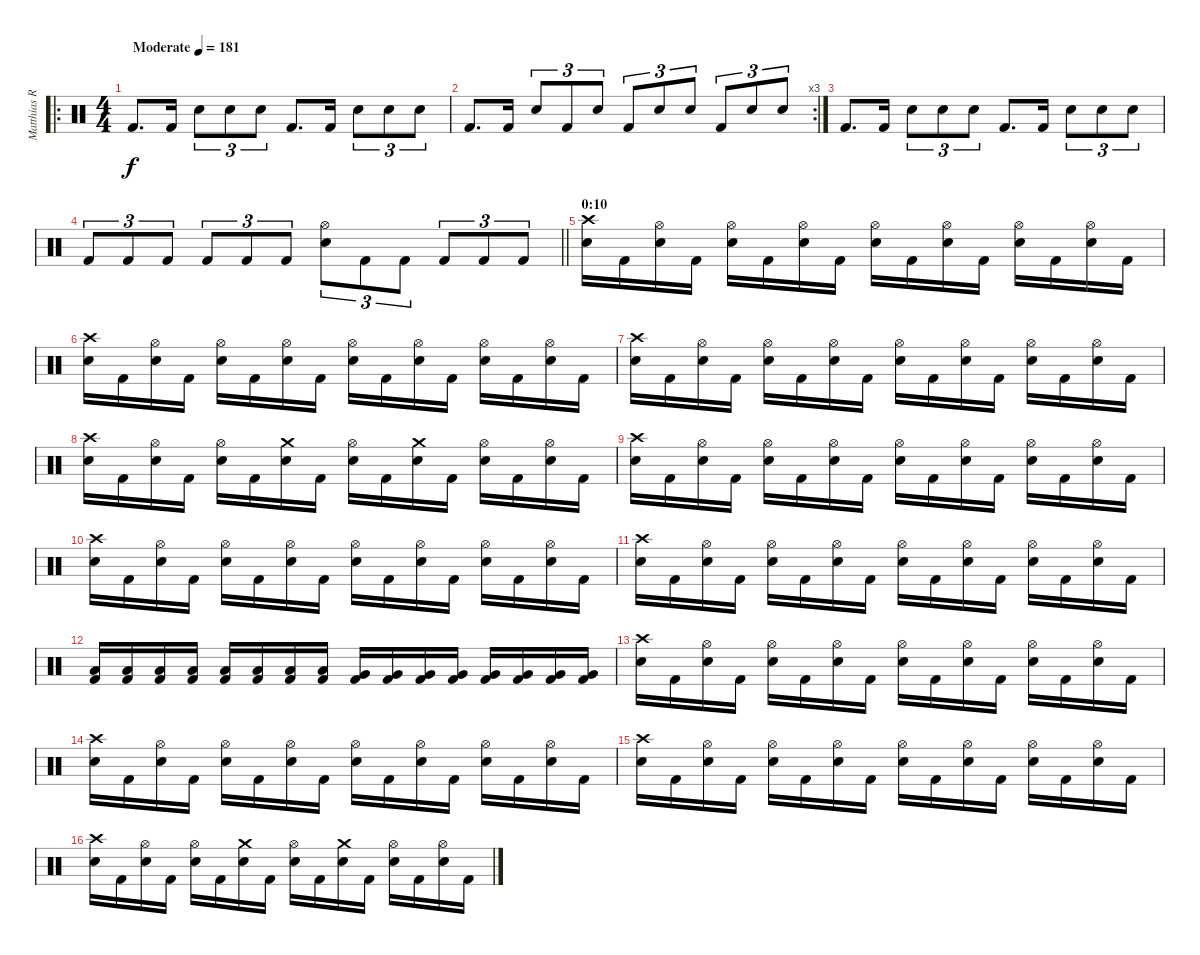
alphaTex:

\track ("Matthias R." "Matthias R") {instrument percussion}
\staff {score}
\articulation defaults
\ro
\ts (4 4)
\tempo (181 "Moderate")
\clef neutral
\ks c "Kick (hit) 2".8{d dy f} "Kick (hit) 2".16 "Snare (hit) 2".8{tu (3 2)} "Snare (hit) 2".8{tu (3 2)} "Snare (hit) 2".8{tu (3 2)} "Kick (hit) 2".8{d} "Kick (hit) 2".16 "Snare (hit) 2".8{tu (3 2)} "Snare (hit) 2".8{tu (3 2)} "Snare (hit) 2".8{tu (3 2)}
|
\rc 3 "Kick (hit) 2".8{d} "Kick (hit) 2".16 "Snare (hit) 2".8{tu (3 2)} "Kick (hit) 2".8{tu (3 2)} "Snare (hit) 2".8{tu (3 2)} "Kick (hit) 2".8{tu (3 2)} "Snare (hit) 2".8{tu (3 2)} "Snare (hit) 2".8{tu (3 2)} "Kick (hit) 2".8{tu (3 2)} "Snare (hit) 2".8{tu (3 2)} "Snare (hit) 2".8{tu (3 2)}
|
"Kick (hit) 2".8{d} "Kick (hit) 2".16 "Snare (hit) 2".8{tu (3 2)} "Snare (hit) 2".8{tu (3 2)} "Snare (hit) 2".8{tu (3 2)} "Kick (hit) 2".8{d} "Kick (hit) 2".16 "Snare (hit) 2".8{tu (3 2)} "Snare (hit) 2".8{tu (3 2)} "Snare (hit) 2".8{tu (3 2)} |
\barLineRight lightlight "Kick (hit) 2".8{tu (3 2)} "Kick (hit) 2".8{tu (3 2)} "Kick (hit) 2".8{tu (3 2)} "Kick (hit) 2".8{tu (3 2)} "Kick (hit) 2".8{tu (3 2)} "Kick (hit) 2".8{tu (3 2)}
("Snare (hit) 2" "Hi-Hat (open)").8{tu (3 2)} "Kick (hit) 2".8{tu (3 2)} "Kick (hit) 2".8{tu (3 2)} "Kick (hit) 2".8{tu (3 2)} "Kick (hit) 2".8{tu (3 2)} "Kick (hit) 2".8{tu (3 2)} |
\section ("" "0:10")
("Snare (hit) 2" "Crash high (hit)").16 "Kick (hit) 2".16 ("Snare (hit) 2" "Hi-Hat (open)").16 "Kick (hit) 2".16 ("Snare (hit) 2" "Hi-Hat (open)").16 "Kick (hit) 2".16 ("Snare (hit) 2" "Hi-Hat (open)").16 "Kick (hit) 2".16 ("Snare (hit) 2" "Hi-Hat (open)").16 "Kick (hit) 2".16 ("Snare (hit) 2" "Hi-Hat (open)").16 "Kick (hit) 2".16 ("Snare (hit) 2" "Hi-Hat (open)").16 "Kick (hit) 2".16 ("Snare (hit) 2" "Hi-Hat (open)").16 "Kick (hit) 2".16 |
("Snare (hit) 2" "Crash high (hit)").16 "Kick (hit) 2".16 ("Snare (hit) 2" "Hi-Hat (open)").16 "Kick (hit) 2".16 ("Snare (hit) 2" "Hi-Hat (open)").16 "Kick (hit) 2".16 ("Snare (hit) 2" "Hi-Hat (open)").16 "Kick (hit) 2".16 ("Snare (hit) 2" "Hi-Hat (open)").16 "Kick (hit) 2".16 ("Snare (hit) 2" "Hi-Hat (open)").16 "Kick (hit) 2".16 ("Snare (hit) 2" "Hi-Hat (open)").16 "Kick (hit) 2".16 ("Snare (hit) 2" "Hi-Hat (open)").16 "Kick (hit) 2".16 |
("Snare (hit) 2" "Crash high (hit)").16 "Kick (hit) 2".16 ("Snare (hit) 2" "Hi-Hat (open)").16 "Kick (hit) 2".16 ("Snare (hit) 2" "Hi-Hat (open)").16 "Kick (hit) 2".16 ("Snare (hit) 2" "Hi-Hat (open)").16 "Kick (hit) 2".16 ("Snare (hit) 2" "Hi-Hat (open)").16 "Kick (hit) 2".16 ("Snare (hit) 2" "Hi-Hat (open)").16 "Kick (hit) 2".16 ("Snare (hit) 2" "Hi-Hat (open)").16 "Kick (hit) 2".16 ("Snare (hit) 2" "Hi-Hat (open)").16 "Kick (hit) 2".16 |
("Snare (hit) 2" "Crash high (hit)").16 "Kick (hit) 2".16 ("Snare (hit) 2" "Hi-Hat (open)").16 "Kick (hit) 2".16 ("Snare (hit) 2" "Hi-Hat (open)").16 "Kick (hit) 2".16 ("Snare (hit) 2" "Crash medium (hit)").16 "Kick (hit) 2".16 ("Snare (hit) 2" "Hi-Hat (open)").16 "Kick (hit) 2".16 ("Snare (hit) 2" "Crash medium (hit)").16 "Kick (hit) 2".16 ("Snare (hit) 2" "Hi-Hat (open)").16 "Kick (hit) 2".16 ("Snare (hit) 2" "Hi-Hat (open)").16 "Kick (hit) 2".16 |
("Snare (hit) 2" "Crash high (hit)").16 "Kick (hit) 2".16 ("Snare (hit) 2" "Hi-Hat (open)").16 "Kick (hit) 2".16 ("Snare (hit) 2" "Hi-Hat (open)").16 "Kick (hit) 2".16 ("Snare (hit) 2" "Hi-Hat (open)").16 "Kick (hit) 2".16 ("Snare (hit) 2" "Hi-Hat (open)").16 "Kick (hit) 2".16 ("Snare (hit) 2" "Hi-Hat (open)").16 "Kick (hit) 2".16 ("Snare (hit) 2" "Hi-Hat (open)").16 "Kick (hit) 2".16 ("Snare (hit) 2" "Hi-Hat (open)").16 "Kick (hit) 2".16 |
("Snare (hit) 2" "Crash high (hit)").16 "Kick (hit) 2".16 ("Snare (hit) 2" "Hi-Hat (open)").16 "Kick (hit) 2".16 ("Snare (hit) 2" "Hi-Hat (open)").16 "Kick (hit) 2".16 ("Snare (hit) 2" "Hi-Hat (open)").16 "Kick (hit) 2".16 ("Snare (hit) 2" "Hi-Hat (open)").16 "Kick (hit) 2".16 ("Snare (hit) 2" "Hi-Hat (open)").16 "Kick (hit) 2".16 ("Snare (hit) 2" "Hi-Hat (open)").16 "Kick (hit) 2".16 ("Snare (hit) 2" "Hi-Hat (open)").16 "Kick (hit) 2".16 |
("Snare (hit) 2" "Crash high (hit)").16 "Kick (hit) 2".16 ("Snare (hit) 2" "Hi-Hat (open)").16 "Kick (hit) 2".16 ("Snare (hit) 2" "Hi-Hat (open)").16 "Kick (hit) 2".16 ("Snare (hit) 2" "Hi-Hat (open)").16 "Kick (hit) 2".16 ("Snare (hit) 2" "Hi-Hat (open)").16 "Kick (hit) 2".16 ("Snare (hit) 2" "Hi-Hat (open)").16 "Kick (hit) 2".16 ("Snare (hit) 2" "Hi-Hat (open)").16 "Kick (hit) 2".16 ("Snare (hit) 2" "Hi-Hat (open)").16 "Kick (hit) 2".16 |
("Kick (hit) 2" "Low Tom (hit)").16 ("Kick (hit) 2" "Low Tom (hit)").16 ("Kick (hit) 2" "Low Tom (hit)").16 ("Kick (hit) 2" "Low Tom (hit)").16 ("Kick (hit) 2" "Low Tom (hit)").16 ("Kick (hit) 2" "Low Tom (hit)").16 ("Kick (hit) 2" "Low Tom (hit)").16 ("Kick (hit) 2" "Low Tom (hit)").16 ("Kick (hit) 2" "Very Low Tom (hit)").16 ("Kick (hit) 2" "Very Low Tom (hit)").16 ("Kick (hit) 2" "Very Low Tom (hit)").16 ("Kick (hit) 2" "Very Low Tom (hit)").16 ("Kick (hit) 2" "Very Low Tom (hit)").16 ("Kick (hit) 2" "Very Low Tom (hit)").16 ("Kick (hit) 2" "Very Low Tom (hit)").16 ("Kick (hit) 2" "Very Low Tom (hit)").16 |
("Snare (hit) 2" "Crash high (hit)").16 "Kick (hit) 2".16 ("Snare (hit) 2" "Hi-Hat (open)").16 "Kick (hit) 2".16 ("Snare (hit) 2" "Hi-Hat (open)").16 "Kick (hit) 2".16 ("Snare (hit) 2" "Hi-Hat (open)").16 "Kick (hit) 2".16 ("Snare (hit) 2" "Hi-Hat (open)").16 "Kick (hit) 2".16 ("Snare (hit) 2" "Hi-Hat (open)").16 "Kick (hit) 2".16 ("Snare (hit) 2" "Hi-Hat (open)").16 "Kick (hit) 2".16 ("Snare (hit) 2" "Hi-Hat (open)").16 "Kick (hit) 2".16 |
("Snare (hit) 2" "Crash high (hit)").16 "Kick (hit) 2".16 ("Snare (hit) 2" "Hi-Hat (open)").16 "Kick (hit) 2".16 ("Snare (hit) 2" "Hi-Hat (open)").16 "Kick (hit) 2".16 ("Snare (hit) 2" "Hi-Hat (open)").16 "Kick (hit) 2".16 ("Snare (hit) 2" "Hi-Hat (open)").16 "Kick (hit) 2".16 ("Snare (hit) 2" "Hi-Hat (open)").16 "Kick (hit) 2".16 ("Snare (hit) 2" "Hi-Hat (open)").16 "Kick (hit) 2".16 ("Snare (hit) 2" "Hi-Hat (open)").16 "Kick (hit) 2".16 |
("Snare (hit) 2" "Crash high (hit)").16 "Kick (hit) 2".16 ("Snare (hit) 2" "Hi-Hat (open)").16 "Kick (hit) 2".16 ("Snare (hit) 2" "Hi-Hat (open)").16 "Kick (hit) 2".16 ("Snare (hit) 2" "Hi-Hat (open)").16 "Kick (hit) 2".16 ("Snare (hit) 2" "Hi-Hat (open)").16 "Kick (hit) 2".16 ("Snare (hit) 2" "Hi-Hat (open)").16 "Kick (hit) 2".16 ("Snare (hit) 2" "Hi-Hat (open)").16 "Kick (hit) 2".16 ("Snare (hit) 2" "Hi-Hat (open)").16 "Kick (hit) 2".16 |
("Snare (hit) 2" "Crash high (hit)").16 "Kick (hit) 2".16 ("Snare (hit) 2" "Hi-Hat (open)").16 "Kick (hit) 2".16 ("Snare (hit) 2" "Hi-Hat (open)").16 "Kick (hit) 2".16 ("Snare (hit) 2" "Crash medium (hit)").16 "Kick (hit) 2".16 ("Snare (hit) 2" "Hi-Hat (open)").16 "Kick (hit) 2".16 ("Snare (hit) 2" "Crash medium (hit)").16 "Kick (hit) 2".16 ("Snare (hit) 2" "Hi-Hat (open)").16 "Kick (hit) 2".16 ("Snare (hit) 2" "Hi-Hat (open)").16 "Kick (hit) 2".16
